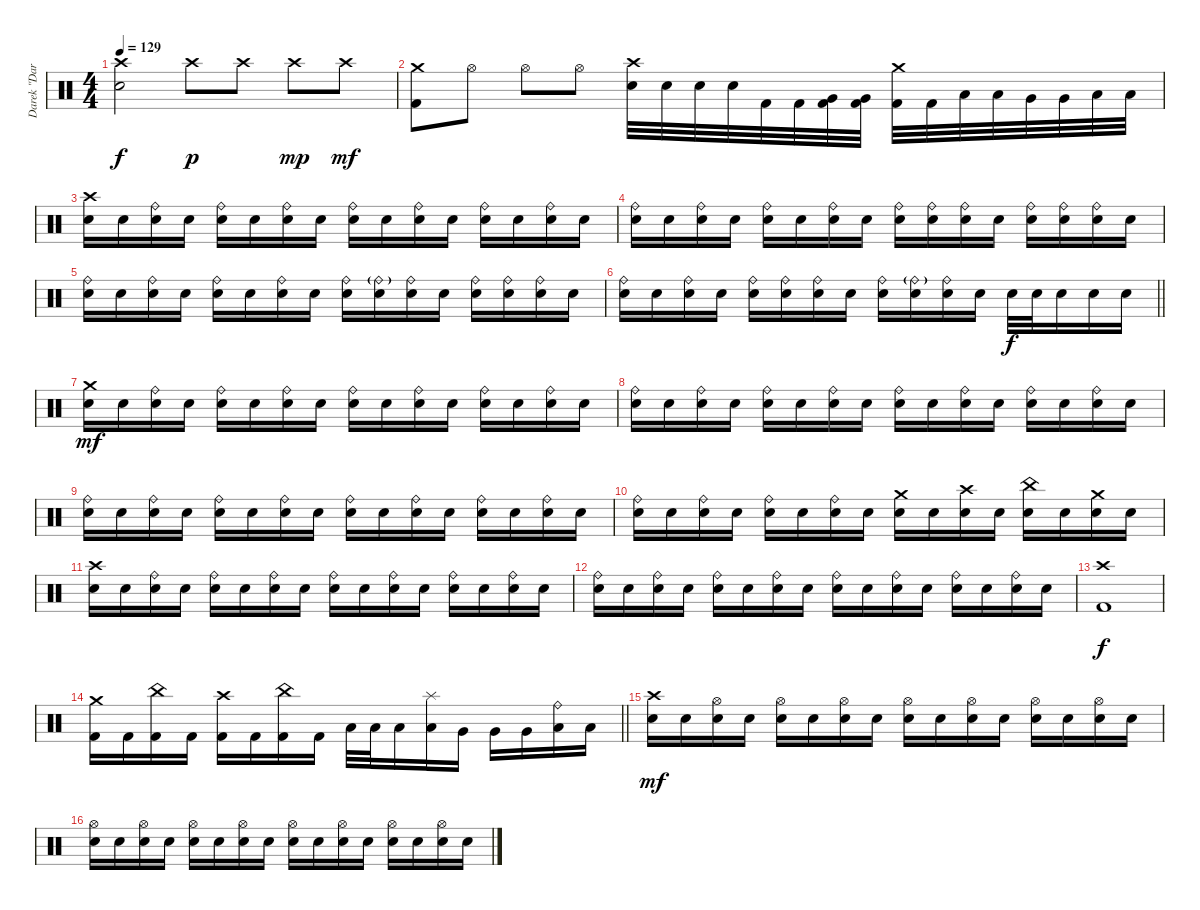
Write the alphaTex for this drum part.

\track ("Darek \"Daray\" Brzozowski " "Darek \"Dar") {instrument percussion}
\staff {score}
\articulation defaults
\ts (4 4)
\tempo 129
\clef neutral
\ks c
("Crash high (hit)" "Electric Snare (hit)").2{dy f} "Crash high (hit)".8{dy p} "Crash high (hit)".8 "Crash high (hit)".8{dy mp} "Crash high (hit)".8{dy mf} |
("Crash medium (hit)" "Kick (hit) 2").8 "Hi-Hat (open)".8 "Hi-Hat (open)".8 "Hi-Hat (open)".8 ("Crash high (hit)" "Electric Snare (hit)").32 "Electric Snare (hit)".32 "Electric Snare (hit)".32 "Electric Snare (hit)".32 "Kick (hit) 2".32 "Kick (hit) 2".32 ("Very Low Tom (hit)" "Kick (hit) 2").32 ("Very Low Tom (hit)" "Kick (hit) 2").32 ("Crash medium (hit)" "Kick (hit) 2").32 "Kick (hit) 2".32 "Low Tom (hit)".32 "Low Tom (hit)".32 "Very Low Tom (hit)".32 "Very Low Tom (hit)".32 "Low Floor Tom (hit)".32 "Low Floor Tom (hit)".32 |
("Crash high (hit)" "Electric Snare (hit)").16 "Electric Snare (hit)".16 ("Ride (bell)" "Electric Snare (hit)").16 "Electric Snare (hit)".16 ("Ride (bell)" "Electric Snare (hit)").16 "Electric Snare (hit)".16 ("Ride (bell)" "Electric Snare (hit)").16 "Electric Snare (hit)".16 ("Ride (bell)" "Electric Snare (hit)").16 "Electric Snare (hit)".16 ("Ride (bell)" "Electric Snare (hit)").16 "Electric Snare (hit)".16 ("Ride (bell)" "Electric Snare (hit)").16 "Electric Snare (hit)".16 ("Ride (bell)" "Electric Snare (hit)").16 "Electric Snare (hit)".16 |
("Ride (bell)" "Electric Snare (hit)").16 "Electric Snare (hit)".16 ("Ride (bell)" "Electric Snare (hit)").16 "Electric Snare (hit)".16 ("Ride (bell)" "Electric Snare (hit)").16 "Electric Snare (hit)".16 ("Ride (bell)" "Electric Snare (hit)").16 "Electric Snare (hit)".16 ("Ride (bell)" "Electric Snare (hit)").16 ("Ride (bell)" "Electric Snare (hit)").16 ("Ride (bell)" "Electric Snare (hit)").16 "Electric Snare (hit)".16 ("Ride (bell)" "Electric Snare (hit)").16 ("Ride (bell)" "Electric Snare (hit)").16 ("Ride (bell)" "Electric Snare (hit)").16 "Electric Snare (hit)".16 |
("Ride (bell)" "Electric Snare (hit)").16 "Electric Snare (hit)".16 ("Ride (bell)" "Electric Snare (hit)").16 "Electric Snare (hit)".16 ("Ride (bell)" "Electric Snare (hit)").16 "Electric Snare (hit)".16 ("Ride (bell)" "Electric Snare (hit)").16 "Electric Snare (hit)".16 ("Ride (bell)" "Electric Snare (hit)").16 ("Ride (bell)"{g} "Electric Snare (hit)").16 ("Ride (bell)" "Electric Snare (hit)").16 "Electric Snare (hit)".16 ("Ride (bell)" "Electric Snare (hit)").16 ("Ride (bell)" "Electric Snare (hit)").16 ("Ride (bell)" "Electric Snare (hit)").16 "Electric Snare (hit)".16 |
\barLineRight lightlight
("Ride (bell)" "Electric Snare (hit)").16 "Electric Snare (hit)".16 ("Ride (bell)" "Electric Snare (hit)").16 "Electric Snare (hit)".16 ("Ride (bell)" "Electric Snare (hit)").16 ("Ride (bell)" "Electric Snare (hit)").16 ("Ride (bell)" "Electric Snare (hit)").16 "Electric Snare (hit)".16 ("Ride (bell)" "Electric Snare (hit)").16 ("Ride (bell)"{g} "Electric Snare (hit)").16 ("Ride (bell)" "Electric Snare (hit)").16 "Electric Snare (hit)".16 "Electric Snare (hit)".32{dy f} "Electric Snare (hit)".32 "Electric Snare (hit)".16 "Electric Snare (hit)".16 "Electric Snare (hit)".16 |
("Crash medium (hit)" "Electric Snare (hit)").16{dy mf} "Electric Snare (hit)".16 ("Ride (bell)" "Electric Snare (hit)").16 "Electric Snare (hit)".16 ("Ride (bell)" "Electric Snare (hit)").16 "Electric Snare (hit)".16 ("Ride (bell)" "Electric Snare (hit)").16 "Electric Snare (hit)".16 ("Ride (bell)" "Electric Snare (hit)").16 "Electric Snare (hit)".16 ("Ride (bell)" "Electric Snare (hit)").16 "Electric Snare (hit)".16 ("Ride (bell)" "Electric Snare (hit)").16 "Electric Snare (hit)".16 ("Ride (bell)" "Electric Snare (hit)").16 "Electric Snare (hit)".16 |
("Ride (bell)" "Electric Snare (hit)").16 "Electric Snare (hit)".16 ("Ride (bell)" "Electric Snare (hit)").16 "Electric Snare (hit)".16 ("Ride (bell)" "Electric Snare (hit)").16 "Electric Snare (hit)".16 ("Ride (bell)" "Electric Snare (hit)").16 "Electric Snare (hit)".16 ("Ride (bell)" "Electric Snare (hit)").16 "Electric Snare (hit)".16 ("Ride (bell)" "Electric Snare (hit)").16 "Electric Snare (hit)".16 ("Ride (bell)" "Electric Snare (hit)").16 "Electric Snare (hit)".16 ("Ride (bell)" "Electric Snare (hit)").16 "Electric Snare (hit)".16 |
("Ride (bell)" "Electric Snare (hit)").16 "Electric Snare (hit)".16 ("Ride (bell)" "Electric Snare (hit)").16 "Electric Snare (hit)".16 ("Ride (bell)" "Electric Snare (hit)").16 "Electric Snare (hit)".16 ("Ride (bell)" "Electric Snare (hit)").16 "Electric Snare (hit)".16 ("Ride (bell)" "Electric Snare (hit)").16 "Electric Snare (hit)".16 ("Ride (bell)" "Electric Snare (hit)").16 "Electric Snare (hit)".16 ("Ride (bell)" "Electric Snare (hit)").16 "Electric Snare (hit)".16 ("Ride (bell)" "Electric Snare (hit)").16 "Electric Snare (hit)".16 |
("Ride (bell)" "Electric Snare (hit)").16 "Electric Snare (hit)".16 ("Ride (bell)" "Electric Snare (hit)").16 "Electric Snare (hit)".16 ("Ride (bell)" "Electric Snare (hit)").16 "Electric Snare (hit)".16 ("Ride (bell)" "Electric Snare (hit)").16 "Electric Snare (hit)".16 ("Crash medium (hit)" "Electric Snare (hit)").16 "Electric Snare (hit)".16 ("Crash high (hit)" "Electric Snare (hit)").16 "Electric Snare (hit)".16 ("China (hit)" "Electric Snare (hit)").16 "Electric Snare (hit)".16 ("Crash medium (hit)" "Electric Snare (hit)").16 "Electric Snare (hit)".16 |
("Crash high (hit)" "Electric Snare (hit)").16 "Electric Snare (hit)".16 ("Ride (bell)" "Electric Snare (hit)").16 "Electric Snare (hit)".16 ("Ride (bell)" "Electric Snare (hit)").16 "Electric Snare (hit)".16 ("Ride (bell)" "Electric Snare (hit)").16 "Electric Snare (hit)".16 ("Ride (bell)" "Electric Snare (hit)").16 "Electric Snare (hit)".16 ("Ride (bell)" "Electric Snare (hit)").16 "Electric Snare (hit)".16 ("Ride (bell)" "Electric Snare (hit)").16 "Electric Snare (hit)".16 ("Ride (bell)" "Electric Snare (hit)").16 "Electric Snare (hit)".16 |
("Ride (bell)" "Electric Snare (hit)").16 "Electric Snare (hit)".16 ("Ride (bell)" "Electric Snare (hit)").16 "Electric Snare (hit)".16 ("Ride (bell)" "Electric Snare (hit)").16 "Electric Snare (hit)".16 ("Ride (bell)" "Electric Snare (hit)").16 "Electric Snare (hit)".16 ("Ride (bell)" "Electric Snare (hit)").16 "Electric Snare (hit)".16 ("Ride (bell)" "Electric Snare (hit)").16 "Electric Snare (hit)".16 ("Ride (bell)" "Electric Snare (hit)").16 "Electric Snare (hit)".16 ("Ride (bell)" "Electric Snare (hit)").16 "Electric Snare (hit)".16 |
("Crash high (hit)" "Kick (hit) 2").1{dy f} |
\barLineRight lightlight
("Crash medium (hit)" "Kick (hit) 2").16 "Kick (hit) 2".16 ("China (hit)" "Kick (hit) 2").16 "Kick (hit) 2".16 ("Crash high (hit)" "Kick (hit) 2").16 "Kick (hit) 2".16 ("China (hit)" "Kick (hit) 2").16 "Kick (hit) 2".16 "Low Tom (hit)".32 "Low Tom (hit)".32 "Low Tom (hit)".16 ("Splash (hit)" "Low Tom (hit)").16 "Very Low Tom (hit)".16 "Very Low Tom (hit)".16 "Very Low Tom (hit)".16 ("Ride (bell)" "Low Floor Tom (hit)").16 "Low Floor Tom (hit)".16 |
("Crash high (hit)" "Electric Snare (hit)").16{dy mf} "Electric Snare (hit)".16 ("Hi-Hat (open)" "Electric Snare (hit)").16 "Electric Snare (hit)".16 ("Hi-Hat (open)" "Electric Snare (hit)").16 "Electric Snare (hit)".16 ("Hi-Hat (open)" "Electric Snare (hit)").16 "Electric Snare (hit)".16 ("Hi-Hat (open)" "Electric Snare (hit)").16 "Electric Snare (hit)".16 ("Hi-Hat (open)" "Electric Snare (hit)").16 "Electric Snare (hit)".16 ("Hi-Hat (open)" "Electric Snare (hit)").16 "Electric Snare (hit)".16 ("Hi-Hat (open)" "Electric Snare (hit)").16 "Electric Snare (hit)".16 |
("Hi-Hat (open)" "Electric Snare (hit)").16 "Electric Snare (hit)".16 ("Hi-Hat (open)" "Electric Snare (hit)").16 "Electric Snare (hit)".16 ("Hi-Hat (open)" "Electric Snare (hit)").16 "Electric Snare (hit)".16 ("Hi-Hat (open)" "Electric Snare (hit)").16 "Electric Snare (hit)".16 ("Hi-Hat (open)" "Electric Snare (hit)").16 "Electric Snare (hit)".16 ("Hi-Hat (open)" "Electric Snare (hit)").16 "Electric Snare (hit)".16 ("Hi-Hat (open)" "Electric Snare (hit)").16 "Electric Snare (hit)".16 ("Hi-Hat (open)" "Electric Snare (hit)").16 "Electric Snare (hit)".16
